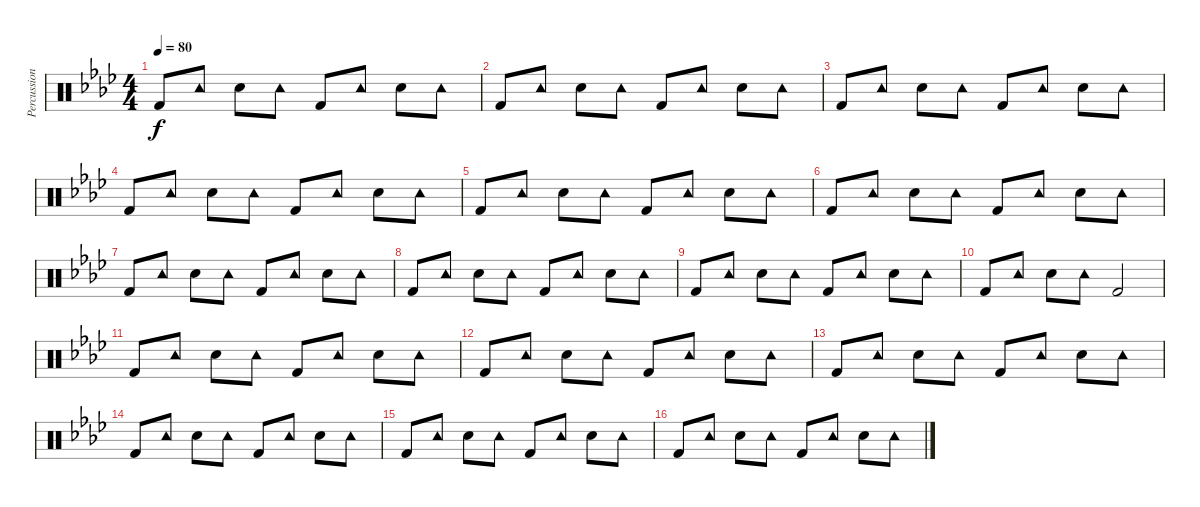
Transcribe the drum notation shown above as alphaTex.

\track ("Percussions" "Percussion") {instrument percussion}
\staff {score}
\articulation defaults
\ts (4 4)
\tempo 80
\clef neutral
\ks ab "Kick (hit) 2".8{dy f} "Tambourine (hit)".8 "Electric Snare (hit)".8 "Tambourine (hit)".8 "Kick (hit) 2".8 "Tambourine (hit)".8 "Electric Snare (hit)".8 "Tambourine (hit)".8
|
"Kick (hit) 2".8 "Tambourine (hit)".8 "Electric Snare (hit)".8 "Tambourine (hit)".8 "Kick (hit) 2".8 "Tambourine (hit)".8 "Electric Snare (hit)".8 "Tambourine (hit)".8 |
"Kick (hit) 2".8 "Tambourine (hit)".8 "Electric Snare (hit)".8 "Tambourine (hit)".8 "Kick (hit) 2".8 "Tambourine (hit)".8 "Electric Snare (hit)".8 "Tambourine (hit)".8 |
"Kick (hit) 2".8 "Tambourine (hit)".8 "Electric Snare (hit)".8 "Tambourine (hit)".8 "Kick (hit) 2".8 "Tambourine (hit)".8 "Electric Snare (hit)".8 "Tambourine (hit)".8 |
"Kick (hit) 2".8 "Tambourine (hit)".8 "Electric Snare (hit)".8 "Tambourine (hit)".8 "Kick (hit) 2".8 "Tambourine (hit)".8 "Electric Snare (hit)".8 "Tambourine (hit)".8 |
"Kick (hit) 2".8 "Tambourine (hit)".8 "Electric Snare (hit)".8 "Tambourine (hit)".8 "Kick (hit) 2".8 "Tambourine (hit)".8 "Electric Snare (hit)".8 "Tambourine (hit)".8 |
"Kick (hit) 2".8 "Tambourine (hit)".8 "Electric Snare (hit)".8 "Tambourine (hit)".8 "Kick (hit) 2".8 "Tambourine (hit)".8 "Electric Snare (hit)".8 "Tambourine (hit)".8 |
"Kick (hit) 2".8 "Tambourine (hit)".8 "Electric Snare (hit)".8 "Tambourine (hit)".8 "Kick (hit) 2".8 "Tambourine (hit)".8 "Electric Snare (hit)".8 "Tambourine (hit)".8 |
"Kick (hit) 2".8 "Tambourine (hit)".8 "Electric Snare (hit)".8 "Tambourine (hit)".8 "Kick (hit) 2".8 "Tambourine (hit)".8 "Electric Snare (hit)".8 "Tambourine (hit)".8 |
"Kick (hit) 2".8 "Tambourine (hit)".8 "Electric Snare (hit)".8 "Tambourine (hit)".8 "Kick (hit) 2".2 |
"Kick (hit) 2".8 "Tambourine (hit)".8 "Electric Snare (hit)".8 "Tambourine (hit)".8 "Kick (hit) 2".8 "Tambourine (hit)".8 "Electric Snare (hit)".8 "Tambourine (hit)".8 |
"Kick (hit) 2".8 "Tambourine (hit)".8 "Electric Snare (hit)".8 "Tambourine (hit)".8 "Kick (hit) 2".8 "Tambourine (hit)".8 "Electric Snare (hit)".8 "Tambourine (hit)".8 |
"Kick (hit) 2".8 "Tambourine (hit)".8 "Electric Snare (hit)".8 "Tambourine (hit)".8 "Kick (hit) 2".8 "Tambourine (hit)".8 "Electric Snare (hit)".8 "Tambourine (hit)".8 |
"Kick (hit) 2".8 "Tambourine (hit)".8 "Electric Snare (hit)".8 "Tambourine (hit)".8 "Kick (hit) 2".8 "Tambourine (hit)".8 "Electric Snare (hit)".8 "Tambourine (hit)".8 |
"Kick (hit) 2".8 "Tambourine (hit)".8 "Electric Snare (hit)".8 "Tambourine (hit)".8 "Kick (hit) 2".8 "Tambourine (hit)".8 "Electric Snare (hit)".8 "Tambourine (hit)".8 |
"Kick (hit) 2".8 "Tambourine (hit)".8 "Electric Snare (hit)".8 "Tambourine (hit)".8 "Kick (hit) 2".8 "Tambourine (hit)".8 "Electric Snare (hit)".8 "Tambourine (hit)".8
